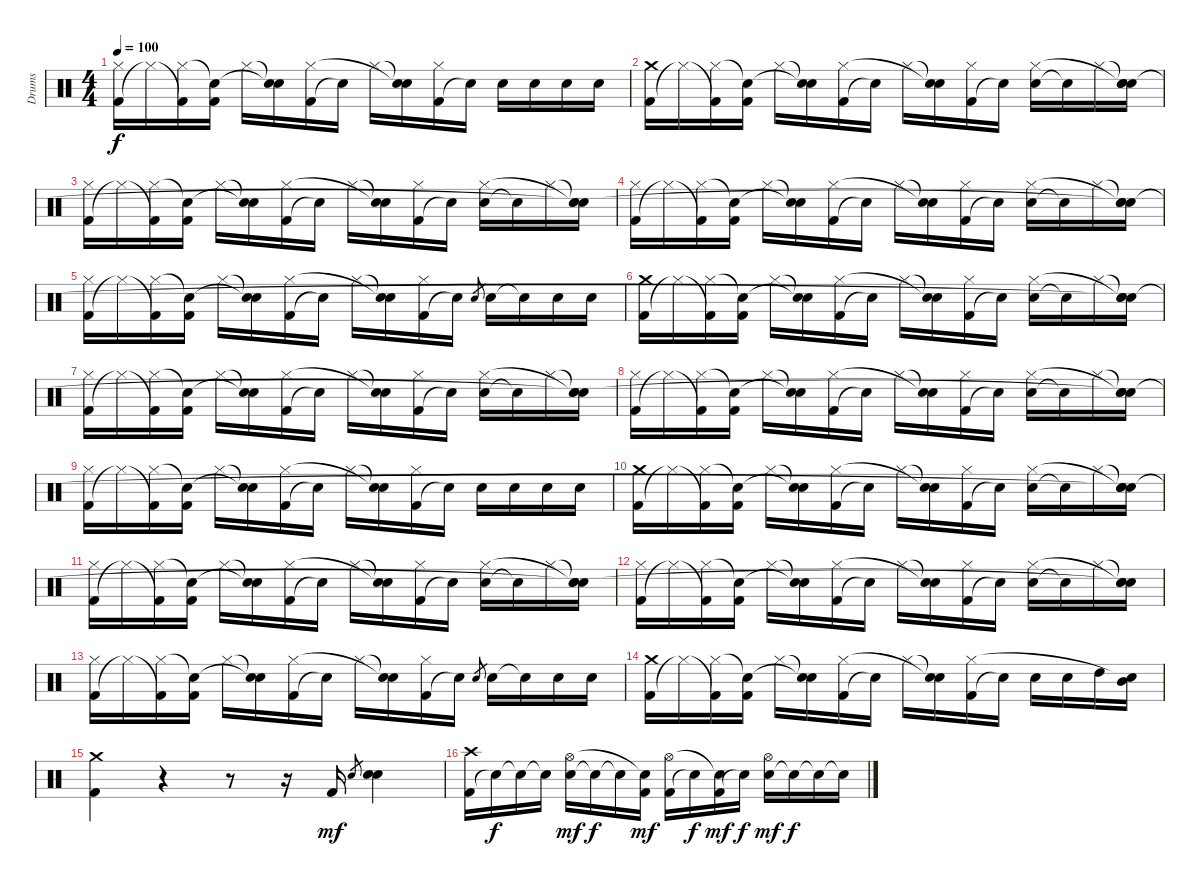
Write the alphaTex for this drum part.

\track ("Drums" "Drums") {instrument percussion}
\staff {score}
\articulation defaults
\ts (4 4)
\tempo 100
\clef neutral
\ks c
("Kick (hit) 2" "Hi-Hat (closed)").16{dy f} "Hi-Hat (closed)"{t}.16 ("Kick (hit) 2"{t} "Hi-Hat (closed)").16 ("Kick (hit) 2" "Snare (hit)"{t}).16 "Hi-Hat (closed)".16 ("Snare (hit)"{t} "Snare (hit)"{t}).16 ("Kick (hit) 2" "Hi-Hat (closed)").16 "Snare (hit)"{t}.16 "Hi-Hat (closed)".16 ("Snare (hit)"{t} "Snare (hit)"{t}).16 ("Kick (hit) 2" "Hi-Hat (closed)").16 "Snare (hit)"{t}.16 "Snare (hit) 2".16 "Snare (hit) 2".16 "Snare (hit) 2".16 "Snare (hit) 2".16 |
("Kick (hit) 2" "Crash medium (hit)").16 "Hi-Hat (closed)"{t}.16 ("Kick (hit) 2"{t} "Hi-Hat (closed)").16 ("Kick (hit) 2" "Snare (hit)"{t}).16 "Hi-Hat (closed)".16 ("Snare (hit)"{t} "Snare (hit)"{t}).16 ("Kick (hit) 2" "Hi-Hat (closed)").16 "Snare (hit)"{t}.16 "Hi-Hat (closed)".16 ("Snare (hit)"{t} "Snare (hit)"{t}).16 ("Kick (hit) 2" "Hi-Hat (closed)").16 "Snare (hit)"{t}.16 ("Snare (hit) 2" "Hi-Hat (closed)").16 "Snare (hit)"{t}.16 "Hi-Hat (closed)".16 ("Snare (hit)"{t} "Snare (hit)"{t} "Snare (hit)"{t}).16 |
("Kick (hit) 2" "Hi-Hat (closed)").16 "Hi-Hat (closed)"{t}.16 ("Kick (hit) 2"{t} "Hi-Hat (closed)").16 ("Kick (hit) 2" "Snare (hit)"{t}).16 "Hi-Hat (closed)".16 ("Snare (hit)"{t} "Snare (hit)"{t}).16 ("Kick (hit) 2" "Hi-Hat (closed)").16 "Snare (hit)"{t}.16 "Hi-Hat (closed)".16 ("Snare (hit)"{t} "Snare (hit)"{t}).16 ("Kick (hit) 2" "Hi-Hat (closed)").16 "Snare (hit)"{t}.16 ("Snare (hit) 2" "Hi-Hat (closed)").16 "Snare (hit)"{t}.16 "Hi-Hat (closed)".16 ("Snare (hit)"{t} "Snare (hit)"{t} "Snare (hit)"{t}).16 |
("Kick (hit) 2" "Hi-Hat (closed)").16 "Hi-Hat (closed)"{t}.16 ("Kick (hit) 2"{t} "Hi-Hat (closed)").16 ("Kick (hit) 2" "Snare (hit)"{t}).16 "Hi-Hat (closed)".16 ("Snare (hit)"{t} "Snare (hit)"{t}).16 ("Kick (hit) 2" "Hi-Hat (closed)").16 "Snare (hit)"{t}.16 "Hi-Hat (closed)".16 ("Snare (hit)"{t} "Snare (hit)"{t}).16 ("Kick (hit) 2" "Hi-Hat (closed)").16 "Snare (hit)"{t}.16 ("Snare (hit) 2" "Hi-Hat (closed)").16 "Snare (hit)"{t}.16 "Hi-Hat (closed)".16 ("Snare (hit)"{t} "Snare (hit)"{t} "Snare (hit)"{t}).16 |
("Kick (hit) 2" "Hi-Hat (closed)").16 "Hi-Hat (closed)"{t}.16 ("Kick (hit) 2"{t} "Hi-Hat (closed)").16 ("Kick (hit) 2" "Snare (hit)"{t}).16 "Hi-Hat (closed)".16 ("Snare (hit)"{t} "Snare (hit)"{t}).16 ("Kick (hit) 2" "Hi-Hat (closed)").16 "Snare (hit)"{t}.16 "Hi-Hat (closed)".16 ("Snare (hit)"{t} "Snare (hit)"{t}).16 ("Kick (hit) 2" "Hi-Hat (closed)").16 "Snare (hit)"{t}.16 "Snare (hit) 2".8{gr} "Snare (hit) 2".16 "Snare (hit) 2"{t}.16 "Snare (hit) 2".16 "Snare (hit) 2".16 |
("Kick (hit) 2" "Crash medium (hit)").16 "Hi-Hat (closed)"{t}.16 ("Kick (hit) 2"{t} "Hi-Hat (closed)").16 ("Kick (hit) 2" "Snare (hit)"{t}).16 "Hi-Hat (closed)".16 ("Snare (hit)"{t} "Snare (hit)"{t}).16 ("Kick (hit) 2" "Hi-Hat (closed)").16 "Snare (hit)"{t}.16 "Hi-Hat (closed)".16 ("Snare (hit)"{t} "Snare (hit)"{t}).16 ("Kick (hit) 2" "Hi-Hat (closed)").16 "Snare (hit)"{t}.16 ("Snare (hit) 2" "Hi-Hat (closed)").16 "Snare (hit)"{t}.16 "Hi-Hat (closed)".16 ("Snare (hit)"{t} "Snare (hit)"{t} "Snare (hit)"{t}).16 |
("Kick (hit) 2" "Hi-Hat (closed)").16 "Hi-Hat (closed)"{t}.16 ("Kick (hit) 2"{t} "Hi-Hat (closed)").16 ("Kick (hit) 2" "Snare (hit)"{t}).16 "Hi-Hat (closed)".16 ("Snare (hit)"{t} "Snare (hit)"{t}).16 ("Kick (hit) 2" "Hi-Hat (closed)").16 "Snare (hit)"{t}.16 "Hi-Hat (closed)".16 ("Snare (hit)"{t} "Snare (hit)"{t}).16 ("Kick (hit) 2" "Hi-Hat (closed)").16 "Snare (hit)"{t}.16 ("Snare (hit) 2" "Hi-Hat (closed)").16 "Snare (hit)"{t}.16 "Hi-Hat (closed)".16 ("Snare (hit)"{t} "Snare (hit)"{t} "Snare (hit)"{t}).16 |
("Kick (hit) 2" "Hi-Hat (closed)").16 "Hi-Hat (closed)"{t}.16 ("Kick (hit) 2"{t} "Hi-Hat (closed)").16 ("Kick (hit) 2" "Snare (hit)"{t}).16 "Hi-Hat (closed)".16 ("Snare (hit)"{t} "Snare (hit)"{t}).16 ("Kick (hit) 2" "Hi-Hat (closed)").16 "Snare (hit)"{t}.16 "Hi-Hat (closed)".16 ("Snare (hit)"{t} "Snare (hit)"{t}).16 ("Kick (hit) 2" "Hi-Hat (closed)").16 "Snare (hit)"{t}.16 ("Snare (hit) 2" "Hi-Hat (closed)").16 "Snare (hit)"{t}.16 "Hi-Hat (closed)".16 ("Snare (hit)"{t} "Snare (hit)"{t} "Snare (hit)"{t}).16 |
("Kick (hit) 2" "Hi-Hat (closed)").16 "Hi-Hat (closed)"{t}.16 ("Kick (hit) 2"{t} "Hi-Hat (closed)").16 ("Kick (hit) 2" "Snare (hit)"{t}).16 "Hi-Hat (closed)".16 ("Snare (hit)"{t} "Snare (hit)"{t}).16 ("Kick (hit) 2" "Hi-Hat (closed)").16 "Snare (hit)"{t}.16 "Hi-Hat (closed)".16 ("Snare (hit)"{t} "Snare (hit)"{t}).16 ("Kick (hit) 2" "Hi-Hat (closed)").16 "Snare (hit)"{t}.16 "Snare (hit) 2".16 "Snare (hit) 2".16 "Snare (hit) 2".16 "Snare (hit) 2".16 |
("Kick (hit) 2" "Crash medium (hit)").16 "Hi-Hat (closed)"{t}.16 ("Kick (hit) 2"{t} "Hi-Hat (closed)").16 ("Kick (hit) 2" "Snare (hit)"{t}).16 "Hi-Hat (closed)".16 ("Snare (hit)"{t} "Snare (hit)"{t}).16 ("Kick (hit) 2" "Hi-Hat (closed)").16 "Snare (hit)"{t}.16 "Hi-Hat (closed)".16 ("Snare (hit)"{t} "Snare (hit)"{t}).16 ("Kick (hit) 2" "Hi-Hat (closed)").16 "Snare (hit)"{t}.16 ("Snare (hit) 2" "Hi-Hat (closed)").16 "Snare (hit)"{t}.16 "Hi-Hat (closed)".16 ("Snare (hit)"{t} "Snare (hit)"{t} "Snare (hit)"{t}).16 |
("Kick (hit) 2" "Hi-Hat (closed)").16 "Hi-Hat (closed)"{t}.16 ("Kick (hit) 2"{t} "Hi-Hat (closed)").16 ("Kick (hit) 2" "Snare (hit)"{t}).16 "Hi-Hat (closed)".16 ("Snare (hit)"{t} "Snare (hit)"{t}).16 ("Kick (hit) 2" "Hi-Hat (closed)").16 "Snare (hit)"{t}.16 "Hi-Hat (closed)".16 ("Snare (hit)"{t} "Snare (hit)"{t}).16 ("Kick (hit) 2" "Hi-Hat (closed)").16 "Snare (hit)"{t}.16 ("Snare (hit) 2" "Hi-Hat (closed)").16 "Snare (hit)"{t}.16 "Hi-Hat (closed)".16 ("Snare (hit)"{t} "Snare (hit)"{t} "Snare (hit)"{t}).16 |
("Kick (hit) 2" "Hi-Hat (closed)").16 "Hi-Hat (closed)"{t}.16 ("Kick (hit) 2"{t} "Hi-Hat (closed)").16 ("Kick (hit) 2" "Snare (hit)"{t}).16 "Hi-Hat (closed)".16 ("Snare (hit)"{t} "Snare (hit)"{t}).16 ("Kick (hit) 2" "Hi-Hat (closed)").16 "Snare (hit)"{t}.16 "Hi-Hat (closed)".16 ("Snare (hit)"{t} "Snare (hit)"{t}).16 ("Kick (hit) 2" "Hi-Hat (closed)").16 "Snare (hit)"{t}.16 ("Snare (hit) 2" "Hi-Hat (closed)").16 "Snare (hit)"{t}.16 "Hi-Hat (closed)".16 ("Snare (hit)"{t} "Snare (hit)"{t} "Snare (hit)"{t}).16 |
("Kick (hit) 2" "Hi-Hat (closed)").16 "Hi-Hat (closed)"{t}.16 ("Kick (hit) 2"{t} "Hi-Hat (closed)").16 ("Kick (hit) 2" "Snare (hit)"{t}).16 "Hi-Hat (closed)".16 ("Snare (hit)"{t} "Snare (hit)"{t}).16 ("Kick (hit) 2" "Hi-Hat (closed)").16 "Snare (hit)"{t}.16 "Hi-Hat (closed)".16 ("Snare (hit)"{t} "Snare (hit)"{t}).16 ("Kick (hit) 2" "Hi-Hat (closed)").16 "Snare (hit)"{t}.16 "Snare (hit) 2".8{gr} "Snare (hit) 2".16 "Snare (hit) 2"{t}.16 "Snare (hit) 2".16 "Snare (hit) 2".16 |
("Kick (hit) 2" "Crash medium (hit)").16 "Hi-Hat (closed)"{t}.16 ("Kick (hit) 2"{t} "Hi-Hat (closed)").16 ("Kick (hit) 2" "Snare (hit)"{t}).16 "Hi-Hat (closed)".16 ("Snare (hit)"{t} "Snare (hit)"{t}).16 ("Kick (hit) 2" "Hi-Hat (closed)").16 "Snare (hit)"{t}.16 "Hi-Hat (closed)".16 ("Snare (hit)"{t} "Snare (hit)"{t}).16 ("Kick (hit) 2" "Hi-Hat (closed)").16 "Snare (hit)"{t}.16 "Snare (hit) 2".16 "Snare (hit) 2".16 "High Tom (hit)".16 ("Mid Tom (hit)" "Snare (hit)"{t}).16 |
("Crash medium (hit)" "Kick (hit) 2").4 r.4 r.8 r.16 "Kick (hit) 2".16{dy mf} "Snare (hit) 2".8{gr} ("Snare (hit) 2" "Snare (hit) 2").4 |
("Kick (hit) 2" "Crash high (hit)").16 "Snare (hit)"{t}.16{dy f} "Snare (hit)"{t}.16 "Snare (hit)"{t}.16 ("Snare (hit) 2" "Hi-Hat (open)").16{dy mf} "Snare (hit)"{t}.16{dy f} "Snare (hit)"{t}.16 ("Kick (hit) 2" "Snare (hit)"{t}).16{dy mf} ("Kick (hit) 2" "Hi-Hat (open)").16 "Snare (hit)"{t}.16{dy f} ("Kick (hit) 2" "Snare (hit)"{t}).16{dy mf} "Snare (hit)"{t}.16{dy f} ("Snare (hit) 2" "Hi-Hat (open)").16{dy mf} "Snare (hit)"{t}.16{dy f} "Snare (hit)"{t}.16 "Snare (hit)"{t}.16
